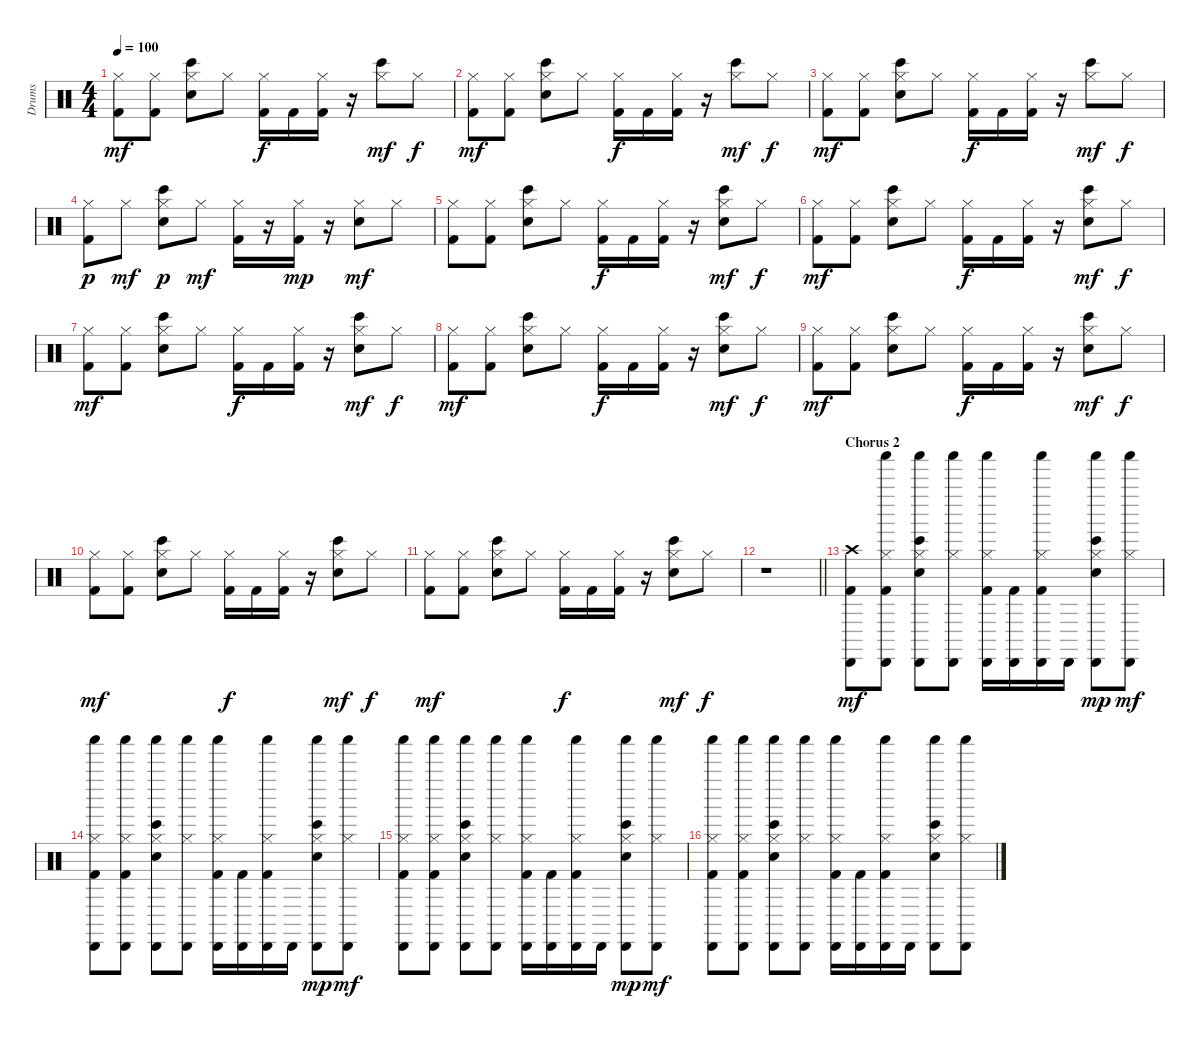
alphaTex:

\track ("Drums" "Drums") {instrument percussion}
\staff {score}
\articulation defaults
\ts (4 4)
\tempo 100
\clef neutral
\ks c
("Hi-Hat (closed)" "Kick (hit) 2").8{dy mf} ("Hi-Hat (closed)" "Kick (hit) 2").8 ("Hi-Hat (closed)" "Bongo High (hit)" "Snare (hit) 2").8 "Hi-Hat (closed)".8 ("Hi-Hat (closed)" "Kick (hit) 2").16{dy f} "Kick (hit) 2".16 ("Hi-Hat (closed)" "Kick (hit) 2").16 r.16 ("Hi-Hat (closed)" "Bongo High (hit)").8{dy mf} "Hi-Hat (closed)".8{dy f} |
("Hi-Hat (closed)" "Kick (hit) 2").8{dy mf} ("Hi-Hat (closed)" "Kick (hit) 2").8 ("Hi-Hat (closed)" "Bongo High (hit)" "Snare (hit) 2").8 "Hi-Hat (closed)".8 ("Hi-Hat (closed)" "Kick (hit) 2").16{dy f} "Kick (hit) 2".16 ("Hi-Hat (closed)" "Kick (hit) 2").16 r.16 ("Hi-Hat (closed)" "Bongo High (hit)").8{dy mf} "Hi-Hat (closed)".8{dy f} |
("Hi-Hat (closed)" "Kick (hit) 2").8{dy mf} ("Hi-Hat (closed)" "Kick (hit) 2").8 ("Hi-Hat (closed)" "Bongo High (hit)" "Snare (hit) 2").8 "Hi-Hat (closed)".8 ("Hi-Hat (closed)" "Kick (hit) 2").16{dy f} "Kick (hit) 2".16 ("Hi-Hat (closed)" "Kick (hit) 2").16 r.16 ("Hi-Hat (closed)" "Bongo High (hit)").8{dy mf} "Hi-Hat (closed)".8{dy f} |
("Hi-Hat (closed)" "Kick (hit) 2").8{dy p} "Hi-Hat (closed)".8{dy mf} ("Hi-Hat (closed)" "Bongo High (hit)" "Snare (hit) 2").8{dy p} "Hi-Hat (closed)".8{dy mf} ("Hi-Hat (closed)" "Kick (hit) 2").16 r.16 ("Hi-Hat (closed)" "Kick (hit) 2").16{dy mp} r.16 ("Hi-Hat (closed)" "Snare (hit) 2").8{dy mf} "Hi-Hat (closed)".8 |
("Hi-Hat (closed)" "Kick (hit) 2").8 ("Hi-Hat (closed)" "Kick (hit) 2").8 ("Hi-Hat (closed)" "Bongo High (hit)" "Snare (hit) 2").8 "Hi-Hat (closed)".8 ("Hi-Hat (closed)" "Kick (hit) 2").16{dy f} "Kick (hit) 2".16 ("Hi-Hat (closed)" "Kick (hit) 2").16 r.16 ("Hi-Hat (closed)" "Bongo High (hit)" "Snare (hit) 2").8{dy mf} "Hi-Hat (closed)".8{dy f} |
("Hi-Hat (closed)" "Kick (hit) 2").8{dy mf} ("Hi-Hat (closed)" "Kick (hit) 2").8 ("Hi-Hat (closed)" "Bongo High (hit)" "Snare (hit) 2").8 "Hi-Hat (closed)".8 ("Hi-Hat (closed)" "Kick (hit) 2").16{dy f} "Kick (hit) 2".16 ("Hi-Hat (closed)" "Kick (hit) 2").16 r.16 ("Hi-Hat (closed)" "Bongo High (hit)" "Snare (hit) 2").8{dy mf} "Hi-Hat (closed)".8{dy f} |
("Hi-Hat (closed)" "Kick (hit) 2").8{dy mf} ("Hi-Hat (closed)" "Kick (hit) 2").8 ("Hi-Hat (closed)" "Bongo High (hit)" "Snare (hit) 2").8 "Hi-Hat (closed)".8 ("Hi-Hat (closed)" "Kick (hit) 2").16{dy f} "Kick (hit) 2".16 ("Hi-Hat (closed)" "Kick (hit) 2").16 r.16 ("Hi-Hat (closed)" "Bongo High (hit)" "Snare (hit) 2").8{dy mf} "Hi-Hat (closed)".8{dy f} |
("Hi-Hat (closed)" "Kick (hit) 2").8{dy mf} ("Hi-Hat (closed)" "Kick (hit) 2").8 ("Hi-Hat (closed)" "Bongo High (hit)" "Snare (hit) 2").8 "Hi-Hat (closed)".8 ("Hi-Hat (closed)" "Kick (hit) 2").16{dy f} "Kick (hit) 2".16 ("Hi-Hat (closed)" "Kick (hit) 2").16 r.16 ("Hi-Hat (closed)" "Bongo High (hit)" "Snare (hit) 2").8{dy mf} "Hi-Hat (closed)".8{dy f} |
("Hi-Hat (closed)" "Kick (hit) 2").8{dy mf} ("Hi-Hat (closed)" "Kick (hit) 2").8 ("Hi-Hat (closed)" "Bongo High (hit)" "Snare (hit) 2").8 "Hi-Hat (closed)".8 ("Hi-Hat (closed)" "Kick (hit) 2").16{dy f} "Kick (hit) 2".16 ("Hi-Hat (closed)" "Kick (hit) 2").16 r.16 ("Hi-Hat (closed)" "Bongo High (hit)" "Snare (hit) 2").8{dy mf} "Hi-Hat (closed)".8{dy f} |
("Hi-Hat (closed)" "Kick (hit) 2").8{dy mf} ("Hi-Hat (closed)" "Kick (hit) 2").8 ("Hi-Hat (closed)" "Bongo High (hit)" "Snare (hit) 2").8 "Hi-Hat (closed)".8 ("Hi-Hat (closed)" "Kick (hit) 2").16{dy f} "Kick (hit) 2".16 ("Hi-Hat (closed)" "Kick (hit) 2").16 r.16 ("Hi-Hat (closed)" "Bongo High (hit)" "Snare (hit) 2").8{dy mf} "Hi-Hat (closed)".8{dy f} |
("Hi-Hat (closed)" "Kick (hit) 2").8{dy mf} ("Hi-Hat (closed)" "Kick (hit) 2").8 ("Hi-Hat (closed)" "Bongo High (hit)" "Snare (hit) 2").8 "Hi-Hat (closed)".8 ("Hi-Hat (closed)" "Kick (hit) 2").16{dy f} "Kick (hit) 2".16 ("Hi-Hat (closed)" "Kick (hit) 2").16 r.16 ("Hi-Hat (closed)" "Bongo High (hit)" "Snare (hit) 2").8{dy mf} "Hi-Hat (closed)".8{dy f} |
\barLineRight lightlight
r.1 |
\section ("" "Chorus 2")
("Crash high (hit)" "Cabasa (hit)" "Kick (hit) 2").8{dy mf} ("Shaker (hit)" "Hi-Hat (closed)" "Cabasa (hit)" "Kick (hit) 2").8 ("Shaker (hit)" "Hi-Hat (closed)" "Cabasa (hit)" "Bongo High (hit)" "Snare (hit) 2").8 ("Shaker (hit)" "Hi-Hat (closed)" "Cabasa (hit)").8 ("Shaker (hit)" "Hi-Hat (closed)" "Cabasa (hit)" "Kick (hit) 2").16 ("Cabasa (hit)" "Kick (hit) 2").16 ("Shaker (hit)" "Hi-Hat (closed)" "Cabasa (hit)" "Kick (hit) 2").16 "Cabasa (hit)".16 ("Shaker (hit)" "Hi-Hat (closed)" "Cabasa (hit)" "Bongo High (hit)" "Snare (hit) 2").8{dy mp} ("Shaker (hit)" "Hi-Hat (closed)" "Cabasa (hit)").8{dy mf} |
("Shaker (hit)" "Hi-Hat (closed)" "Cabasa (hit)" "Kick (hit) 2").8 ("Shaker (hit)" "Hi-Hat (closed)" "Cabasa (hit)" "Kick (hit) 2").8 ("Shaker (hit)" "Hi-Hat (closed)" "Cabasa (hit)" "Bongo High (hit)" "Snare (hit) 2").8 ("Shaker (hit)" "Hi-Hat (closed)" "Cabasa (hit)").8 ("Shaker (hit)" "Hi-Hat (closed)" "Cabasa (hit)" "Kick (hit) 2").16 ("Cabasa (hit)" "Kick (hit) 2").16 ("Shaker (hit)" "Hi-Hat (closed)" "Cabasa (hit)" "Kick (hit) 2").16 "Cabasa (hit)".16 ("Shaker (hit)" "Hi-Hat (closed)" "Cabasa (hit)" "Bongo High (hit)" "Snare (hit) 2").8{dy mp} ("Shaker (hit)" "Hi-Hat (closed)" "Cabasa (hit)").8{dy mf} |
("Shaker (hit)" "Hi-Hat (closed)" "Cabasa (hit)" "Kick (hit) 2").8 ("Shaker (hit)" "Hi-Hat (closed)" "Cabasa (hit)" "Kick (hit) 2").8 ("Shaker (hit)" "Hi-Hat (closed)" "Cabasa (hit)" "Bongo High (hit)" "Snare (hit) 2").8 ("Shaker (hit)" "Hi-Hat (closed)" "Cabasa (hit)").8 ("Shaker (hit)" "Hi-Hat (closed)" "Cabasa (hit)" "Kick (hit) 2").16 ("Cabasa (hit)" "Kick (hit) 2").16 ("Shaker (hit)" "Hi-Hat (closed)" "Cabasa (hit)" "Kick (hit) 2").16 "Cabasa (hit)".16 ("Shaker (hit)" "Hi-Hat (closed)" "Cabasa (hit)" "Bongo High (hit)" "Snare (hit) 2").8{dy mp} ("Shaker (hit)" "Hi-Hat (closed)" "Cabasa (hit)").8{dy mf} |
("Shaker (hit)" "Hi-Hat (closed)" "Cabasa (hit)" "Kick (hit) 2").8 ("Shaker (hit)" "Hi-Hat (closed)" "Cabasa (hit)" "Kick (hit) 2").8 ("Shaker (hit)" "Hi-Hat (closed)" "Cabasa (hit)" "Bongo High (hit)" "Snare (hit) 2").8 ("Shaker (hit)" "Hi-Hat (closed)" "Cabasa (hit)").8 ("Shaker (hit)" "Hi-Hat (closed)" "Cabasa (hit)" "Kick (hit) 2").16 ("Cabasa (hit)" "Kick (hit) 2").16 ("Shaker (hit)" "Hi-Hat (closed)" "Cabasa (hit)" "Kick (hit) 2").16 "Cabasa (hit)".16 ("Shaker (hit)" "Hi-Hat (closed)" "Cabasa (hit)" "Bongo High (hit)" "Snare (hit) 2").8 ("Shaker (hit)" "Hi-Hat (closed)" "Cabasa (hit)").8
